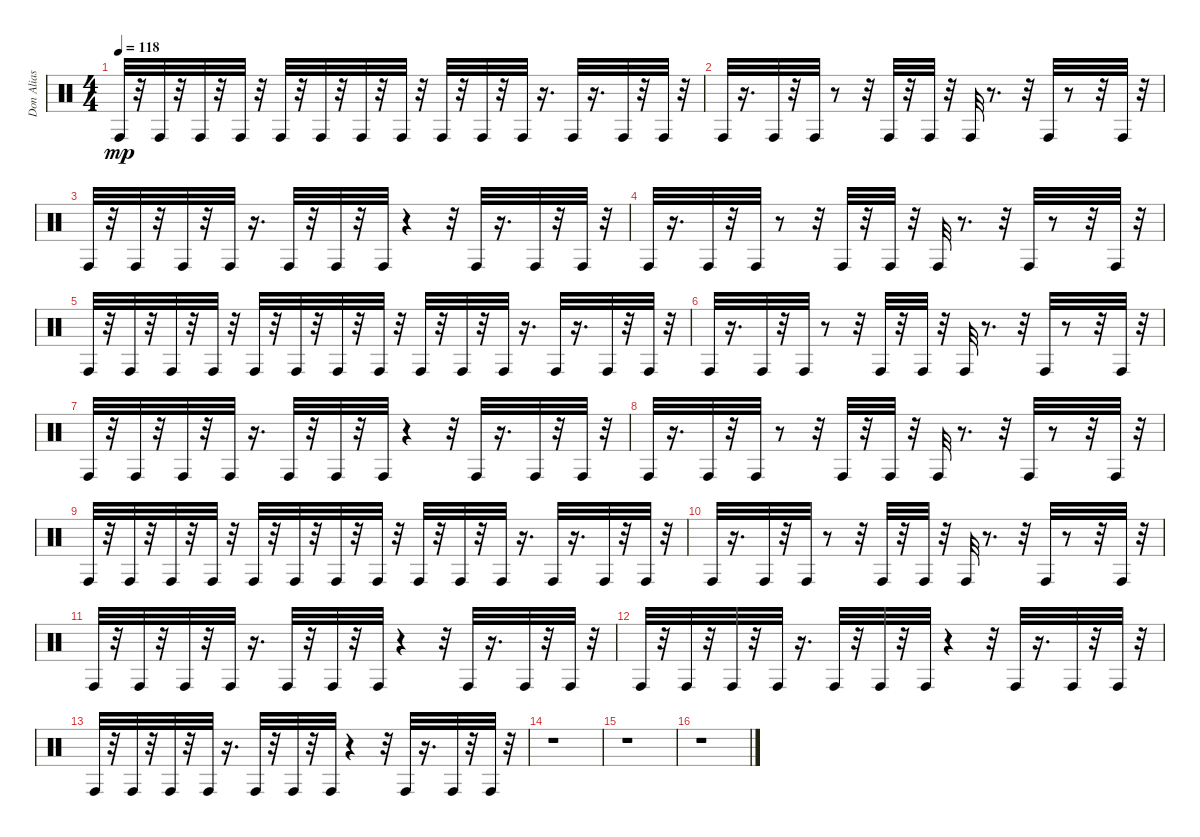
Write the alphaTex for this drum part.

\track ("Don Alias" "Don Alias") {instrument percussion}
\staff {score}
\articulation defaults
\ts (4 4)
\tempo 118
\clef neutral
\ks c "Conga high (hit)".32{dy mp}
r.32 "Conga high (hit)".32 r.32 "Conga high (hit)".32 r.32 "Conga high (hit)".32 r.32 "Conga high (hit)".32 r.32 "Conga high (hit)".32 r.32 "Conga high (hit)".32 r.32 "Conga high (hit)".32 r.32 "Conga high (hit)".32 r.32 "Conga high (hit)".32 r.32 "Conga high (hit)".32 r.16{d} "Conga high (hit)".32 r.16{d} "Conga high (hit)".32 r.32 "Conga high (hit)".32 r.32 |
"Conga high (hit)".32 r.16{d} "Conga high (hit)".32 r.32 "Conga high (hit)".32 r.8 r.32 "Conga high (hit)".32 r.32 "Conga high (hit)".32 r.32 "Conga high (hit)".32 r.8{d} r.32 "Conga high (hit)".32 r.8 r.32 "Conga high (hit)".32 r.32 |
"Conga high (hit)".32 r.32 "Conga high (hit)".32 r.32 "Conga high (hit)".32 r.32 "Conga high (hit)".32 r.16{d} "Conga high (hit)".32 r.32 "Conga high (hit)".32 r.32 "Conga high (hit)".32 r.4 r.32 "Conga high (hit)".32 r.16{d} "Conga high (hit)".32 r.32 "Conga high (hit)".32 r.32 |
"Conga high (hit)".32 r.16{d} "Conga high (hit)".32 r.32 "Conga high (hit)".32 r.8 r.32 "Conga high (hit)".32 r.32 "Conga high (hit)".32 r.32 "Conga high (hit)".32 r.8{d} r.32 "Conga high (hit)".32 r.8 r.32 "Conga high (hit)".32 r.32 |
"Conga high (hit)".32 r.32 "Conga high (hit)".32 r.32 "Conga high (hit)".32 r.32 "Conga high (hit)".32 r.32 "Conga high (hit)".32 r.32 "Conga high (hit)".32 r.32 "Conga high (hit)".32 r.32 "Conga high (hit)".32 r.32 "Conga high (hit)".32 r.32 "Conga high (hit)".32 r.32 "Conga high (hit)".32 r.16{d} "Conga high (hit)".32 r.16{d} "Conga high (hit)".32 r.32 "Conga high (hit)".32 r.32 |
"Conga high (hit)".32 r.16{d} "Conga high (hit)".32 r.32 "Conga high (hit)".32 r.8 r.32 "Conga high (hit)".32 r.32 "Conga high (hit)".32 r.32 "Conga high (hit)".32 r.8{d} r.32 "Conga high (hit)".32 r.8 r.32 "Conga high (hit)".32 r.32 |
"Conga high (hit)".32 r.32 "Conga high (hit)".32 r.32 "Conga high (hit)".32 r.32 "Conga high (hit)".32 r.16{d} "Conga high (hit)".32 r.32 "Conga high (hit)".32 r.32 "Conga high (hit)".32 r.4 r.32 "Conga high (hit)".32 r.16{d} "Conga high (hit)".32 r.32 "Conga high (hit)".32 r.32 |
"Conga high (hit)".32 r.16{d} "Conga high (hit)".32 r.32 "Conga high (hit)".32 r.8 r.32 "Conga high (hit)".32 r.32 "Conga high (hit)".32 r.32 "Conga high (hit)".32 r.8{d} r.32 "Conga high (hit)".32 r.8 r.32 "Conga high (hit)".32 r.32 |
"Conga high (hit)".32 r.32 "Conga high (hit)".32 r.32 "Conga high (hit)".32 r.32 "Conga high (hit)".32 r.32 "Conga high (hit)".32 r.32 "Conga high (hit)".32 r.32 "Conga high (hit)".32 r.32 "Conga high (hit)".32 r.32 "Conga high (hit)".32 r.32 "Conga high (hit)".32 r.32 "Conga high (hit)".32 r.16{d} "Conga high (hit)".32 r.16{d} "Conga high (hit)".32 r.32 "Conga high (hit)".32 r.32 |
"Conga high (hit)".32 r.16{d} "Conga high (hit)".32 r.32 "Conga high (hit)".32 r.8 r.32 "Conga high (hit)".32 r.32 "Conga high (hit)".32 r.32 "Conga high (hit)".32 r.8{d} r.32 "Conga high (hit)".32 r.8 r.32 "Conga high (hit)".32 r.32 |
"Conga high (hit)".32 r.32 "Conga high (hit)".32 r.32 "Conga high (hit)".32 r.32 "Conga high (hit)".32 r.16{d} "Conga high (hit)".32 r.32 "Conga high (hit)".32 r.32 "Conga high (hit)".32 r.4 r.32 "Conga high (hit)".32 r.16{d} "Conga high (hit)".32 r.32 "Conga high (hit)".32 r.32 |
"Conga high (hit)".32 r.32 "Conga high (hit)".32 r.32 "Conga high (hit)".32 r.32 "Conga high (hit)".32 r.16{d} "Conga high (hit)".32 r.32 "Conga high (hit)".32 r.32 "Conga high (hit)".32 r.4 r.32 "Conga high (hit)".32 r.16{d} "Conga high (hit)".32 r.32 "Conga high (hit)".32 r.32 |
"Conga high (hit)".32 r.32 "Conga high (hit)".32 r.32 "Conga high (hit)".32 r.32 "Conga high (hit)".32 r.16{d} "Conga high (hit)".32 r.32 "Conga high (hit)".32 r.32 "Conga high (hit)".32 r.4 r.32 "Conga high (hit)".32 r.16{d} "Conga high (hit)".32 r.32 "Conga high (hit)".32 r.32 |
r.1 |
r.1 |
r.1
